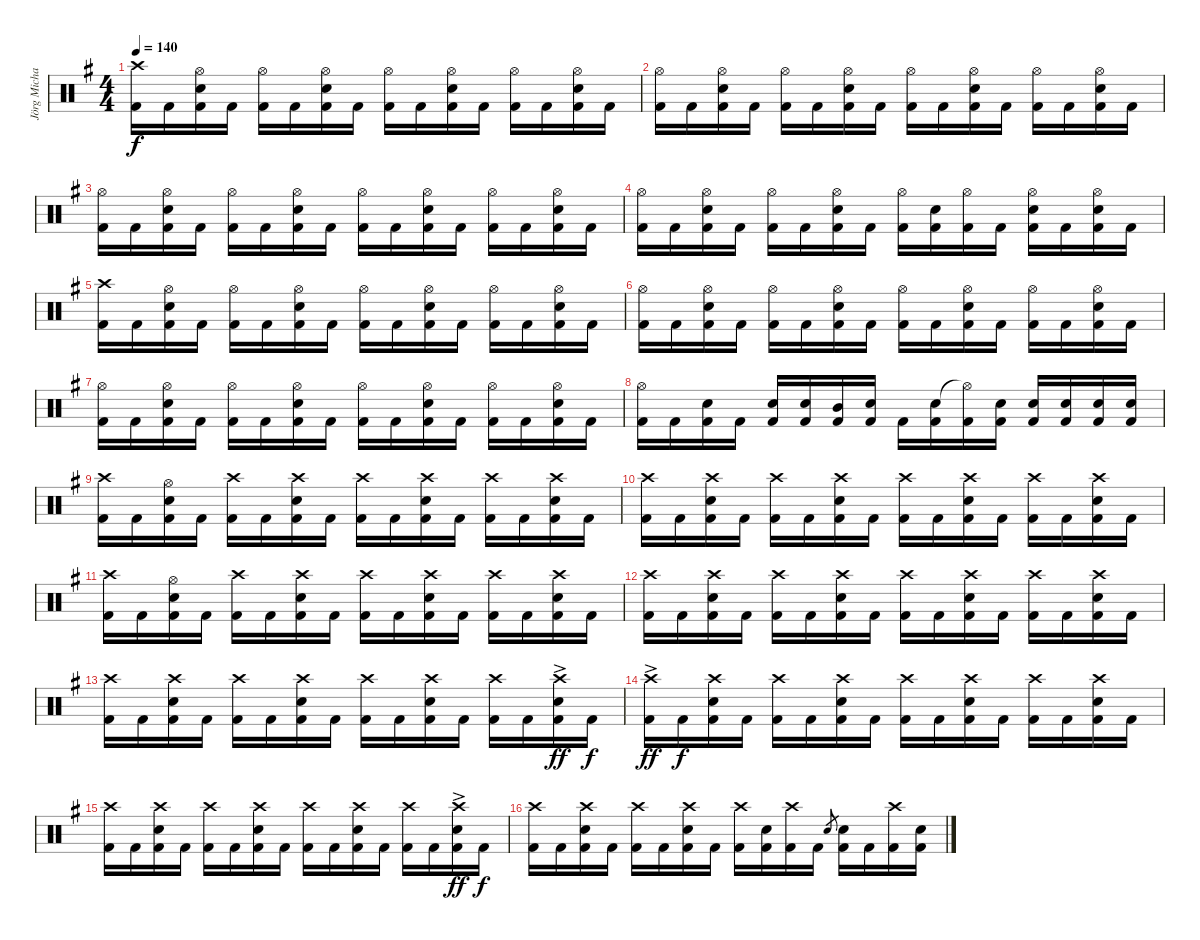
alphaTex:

\track ("Jörg Michael" "Jörg Micha") {instrument percussion}
\staff {score}
\articulation defaults
\ts (4 4)
\tempo 140
\clef neutral
\ks g
("Crash high (hit)" "Kick (hit) 2").16{dy f} "Kick (hit) 2".16 ("Electric Snare (hit)" "Kick (hit) 2" "Hi-Hat (open)").16 "Kick (hit) 2".16 ("Kick (hit) 2" "Hi-Hat (open)").16 "Kick (hit) 2".16 ("Electric Snare (hit)" "Kick (hit) 2" "Hi-Hat (open)").16 "Kick (hit) 2".16 ("Kick (hit) 2" "Hi-Hat (open)").16 "Kick (hit) 2".16 ("Electric Snare (hit)" "Kick (hit) 2" "Hi-Hat (open)").16 "Kick (hit) 2".16 ("Kick (hit) 2" "Hi-Hat (open)").16 "Kick (hit) 2".16 ("Electric Snare (hit)" "Kick (hit) 2" "Hi-Hat (open)").16 "Kick (hit) 2".16 |
("Hi-Hat (open)" "Kick (hit) 2").16 "Kick (hit) 2".16 ("Electric Snare (hit)" "Kick (hit) 2" "Hi-Hat (open)").16 "Kick (hit) 2".16 ("Kick (hit) 2" "Hi-Hat (open)").16 "Kick (hit) 2".16 ("Electric Snare (hit)" "Kick (hit) 2" "Hi-Hat (open)").16 "Kick (hit) 2".16 ("Kick (hit) 2" "Hi-Hat (open)").16 "Kick (hit) 2".16 ("Electric Snare (hit)" "Kick (hit) 2" "Hi-Hat (open)").16 "Kick (hit) 2".16 ("Kick (hit) 2" "Hi-Hat (open)").16 "Kick (hit) 2".16 ("Electric Snare (hit)" "Kick (hit) 2" "Hi-Hat (open)").16 "Kick (hit) 2".16 |
("Hi-Hat (open)" "Kick (hit) 2").16 "Kick (hit) 2".16 ("Electric Snare (hit)" "Kick (hit) 2" "Hi-Hat (open)").16 "Kick (hit) 2".16 ("Kick (hit) 2" "Hi-Hat (open)").16 "Kick (hit) 2".16 ("Electric Snare (hit)" "Kick (hit) 2" "Hi-Hat (open)").16 "Kick (hit) 2".16 ("Kick (hit) 2" "Hi-Hat (open)").16 "Kick (hit) 2".16 ("Electric Snare (hit)" "Kick (hit) 2" "Hi-Hat (open)").16 "Kick (hit) 2".16 ("Kick (hit) 2" "Hi-Hat (open)").16 "Kick (hit) 2".16 ("Electric Snare (hit)" "Kick (hit) 2" "Hi-Hat (open)").16 "Kick (hit) 2".16 |
("Hi-Hat (open)" "Kick (hit) 2").16 "Kick (hit) 2".16 ("Electric Snare (hit)" "Kick (hit) 2" "Hi-Hat (open)").16 "Kick (hit) 2".16 ("Kick (hit) 2" "Hi-Hat (open)").16 "Kick (hit) 2".16 ("Electric Snare (hit)" "Kick (hit) 2" "Hi-Hat (open)").16 "Kick (hit) 2".16 ("Kick (hit) 2" "Hi-Hat (open)").16 ("Electric Snare (hit)" "Kick (hit) 2").16 ("Hi-Hat (open)" "Kick (hit) 2").16 "Kick (hit) 2".16 ("Hi-Hat (open)" "Electric Snare (hit)" "Kick (hit) 2").16 "Kick (hit) 2".16 ("Hi-Hat (open)" "Electric Snare (hit)" "Kick (hit) 2").16 "Kick (hit) 2".16 |
("Crash high (hit)" "Kick (hit) 2").16 "Kick (hit) 2".16 ("Electric Snare (hit)" "Kick (hit) 2" "Hi-Hat (open)").16 "Kick (hit) 2".16 ("Kick (hit) 2" "Hi-Hat (open)").16 "Kick (hit) 2".16 ("Electric Snare (hit)" "Kick (hit) 2" "Hi-Hat (open)").16 "Kick (hit) 2".16 ("Kick (hit) 2" "Hi-Hat (open)").16 "Kick (hit) 2".16 ("Electric Snare (hit)" "Kick (hit) 2" "Hi-Hat (open)").16 "Kick (hit) 2".16 ("Kick (hit) 2" "Hi-Hat (open)").16 "Kick (hit) 2".16 ("Electric Snare (hit)" "Kick (hit) 2" "Hi-Hat (open)").16 "Kick (hit) 2".16 |
("Hi-Hat (open)" "Kick (hit) 2").16 "Kick (hit) 2".16 ("Electric Snare (hit)" "Kick (hit) 2" "Hi-Hat (open)").16 "Kick (hit) 2".16 ("Kick (hit) 2" "Hi-Hat (open)").16 "Kick (hit) 2".16 ("Electric Snare (hit)" "Kick (hit) 2" "Hi-Hat (open)").16 "Kick (hit) 2".16 ("Kick (hit) 2" "Hi-Hat (open)").16 "Kick (hit) 2".16 ("Electric Snare (hit)" "Kick (hit) 2" "Hi-Hat (open)").16 "Kick (hit) 2".16 ("Kick (hit) 2" "Hi-Hat (open)").16 "Kick (hit) 2".16 ("Electric Snare (hit)" "Kick (hit) 2" "Hi-Hat (open)").16 "Kick (hit) 2".16 |
("Hi-Hat (open)" "Kick (hit) 2").16 "Kick (hit) 2".16 ("Electric Snare (hit)" "Kick (hit) 2" "Hi-Hat (open)").16 "Kick (hit) 2".16 ("Kick (hit) 2" "Hi-Hat (open)").16 "Kick (hit) 2".16 ("Electric Snare (hit)" "Kick (hit) 2" "Hi-Hat (open)").16 "Kick (hit) 2".16 ("Kick (hit) 2" "Hi-Hat (open)").16 "Kick (hit) 2".16 ("Electric Snare (hit)" "Kick (hit) 2" "Hi-Hat (open)").16 "Kick (hit) 2".16 ("Kick (hit) 2" "Hi-Hat (open)").16 "Kick (hit) 2".16 ("Electric Snare (hit)" "Kick (hit) 2" "Hi-Hat (open)").16 "Kick (hit) 2".16 |
("Hi-Hat (open)" "Kick (hit) 2").16 "Kick (hit) 2".16 ("Electric Snare (hit)" "Kick (hit) 2").16 "Kick (hit) 2".16 ("Kick (hit) 2" "Electric Snare (hit)").16 ("Kick (hit) 2" "Electric Snare (hit)").16 ("Kick (hit) 2" "Mid Tom (hit)").16 ("Kick (hit) 2" "Electric Snare (hit)").16 "Kick (hit) 2".16 ("Kick (hit) 2" "Electric Snare (hit)").16 ("Kick (hit) 2" "Hi-Hat (open)"{t}).16 ("Kick (hit) 2" "Electric Snare (hit)").16 ("Kick (hit) 2" "Electric Snare (hit)").16 ("Kick (hit) 2" "Electric Snare (hit)").16 ("Kick (hit) 2" "Electric Snare (hit)").16 ("Kick (hit) 2" "Electric Snare (hit)").16 |
("Crash high (hit)" "Kick (hit) 2").16 "Kick (hit) 2".16 ("Electric Snare (hit)" "Kick (hit) 2" "Hi-Hat (open)").16 "Kick (hit) 2".16 ("Kick (hit) 2" "Crash high (hit)").16 "Kick (hit) 2".16 ("Electric Snare (hit)" "Kick (hit) 2" "Crash high (hit)").16 "Kick (hit) 2".16 ("Kick (hit) 2" "Crash high (hit)").16 "Kick (hit) 2".16 ("Electric Snare (hit)" "Kick (hit) 2" "Crash high (hit)").16 "Kick (hit) 2".16 ("Kick (hit) 2" "Crash high (hit)").16 "Kick (hit) 2".16 ("Electric Snare (hit)" "Kick (hit) 2" "Crash high (hit)").16 "Kick (hit) 2".16 |
("Crash high (hit)" "Kick (hit) 2").16 "Kick (hit) 2".16 ("Electric Snare (hit)" "Kick (hit) 2" "Crash high (hit)").16 "Kick (hit) 2".16 ("Kick (hit) 2" "Crash high (hit)").16 "Kick (hit) 2".16 ("Electric Snare (hit)" "Kick (hit) 2" "Crash high (hit)").16 "Kick (hit) 2".16 ("Kick (hit) 2" "Crash high (hit)").16 "Kick (hit) 2".16 ("Electric Snare (hit)" "Kick (hit) 2" "Crash high (hit)").16 "Kick (hit) 2".16 ("Kick (hit) 2" "Crash high (hit)").16 "Kick (hit) 2".16 ("Electric Snare (hit)" "Kick (hit) 2" "Crash high (hit)").16 "Kick (hit) 2".16 |
("Crash high (hit)" "Kick (hit) 2").16 "Kick (hit) 2".16 ("Electric Snare (hit)" "Kick (hit) 2" "Hi-Hat (open)").16 "Kick (hit) 2".16 ("Kick (hit) 2" "Crash high (hit)").16 "Kick (hit) 2".16 ("Electric Snare (hit)" "Kick (hit) 2" "Crash high (hit)").16 "Kick (hit) 2".16 ("Kick (hit) 2" "Crash high (hit)").16 "Kick (hit) 2".16 ("Electric Snare (hit)" "Kick (hit) 2" "Crash high (hit)").16 "Kick (hit) 2".16 ("Kick (hit) 2" "Crash high (hit)").16 "Kick (hit) 2".16 ("Electric Snare (hit)" "Kick (hit) 2" "Crash high (hit)").16 "Kick (hit) 2".16 |
("Crash high (hit)" "Kick (hit) 2").16 "Kick (hit) 2".16 ("Electric Snare (hit)" "Kick (hit) 2" "Crash high (hit)").16 "Kick (hit) 2".16 ("Kick (hit) 2" "Crash high (hit)").16 "Kick (hit) 2".16 ("Electric Snare (hit)" "Kick (hit) 2" "Crash high (hit)").16 "Kick (hit) 2".16 ("Kick (hit) 2" "Crash high (hit)").16 "Kick (hit) 2".16 ("Electric Snare (hit)" "Kick (hit) 2" "Crash high (hit)").16 "Kick (hit) 2".16 ("Kick (hit) 2" "Crash high (hit)").16 "Kick (hit) 2".16 ("Electric Snare (hit)" "Kick (hit) 2" "Crash high (hit)").16 "Kick (hit) 2".16 |
("Crash high (hit)" "Kick (hit) 2").16 "Kick (hit) 2".16 ("Electric Snare (hit)" "Kick (hit) 2" "Crash high (hit)").16 "Kick (hit) 2".16 ("Kick (hit) 2" "Crash high (hit)").16 "Kick (hit) 2".16 ("Electric Snare (hit)" "Kick (hit) 2" "Crash high (hit)").16 "Kick (hit) 2".16 ("Kick (hit) 2" "Crash high (hit)").16 "Kick (hit) 2".16 ("Electric Snare (hit)" "Kick (hit) 2" "Crash high (hit)").16 "Kick (hit) 2".16 ("Kick (hit) 2" "Crash high (hit)").16 "Kick (hit) 2".16 ("Electric Snare (hit)" "Kick (hit) 2" "Crash high (hit)"{ac}).16{dy ff} "Kick (hit) 2".16{dy f} |
("Crash high (hit)"{ac} "Kick (hit) 2").16{dy ff} "Kick (hit) 2".16{dy f} ("Electric Snare (hit)" "Kick (hit) 2" "Crash high (hit)").16 "Kick (hit) 2".16 ("Kick (hit) 2" "Crash high (hit)").16 "Kick (hit) 2".16 ("Electric Snare (hit)" "Kick (hit) 2" "Crash high (hit)").16 "Kick (hit) 2".16 ("Kick (hit) 2" "Crash high (hit)").16 "Kick (hit) 2".16 ("Electric Snare (hit)" "Kick (hit) 2" "Crash high (hit)").16 "Kick (hit) 2".16 ("Kick (hit) 2" "Crash high (hit)").16 "Kick (hit) 2".16 ("Electric Snare (hit)" "Kick (hit) 2" "Crash high (hit)").16 "Kick (hit) 2".16 |
("Crash high (hit)" "Kick (hit) 2").16 "Kick (hit) 2".16 ("Electric Snare (hit)" "Kick (hit) 2" "Crash high (hit)").16 "Kick (hit) 2".16 ("Kick (hit) 2" "Crash high (hit)").16 "Kick (hit) 2".16 ("Electric Snare (hit)" "Kick (hit) 2" "Crash high (hit)").16 "Kick (hit) 2".16 ("Kick (hit) 2" "Crash high (hit)").16 "Kick (hit) 2".16 ("Electric Snare (hit)" "Kick (hit) 2" "Crash high (hit)").16 "Kick (hit) 2".16 ("Kick (hit) 2" "Crash high (hit)").16 "Kick (hit) 2".16 ("Electric Snare (hit)" "Kick (hit) 2" "Crash high (hit)"{ac}).16{dy ff} "Kick (hit) 2".16{dy f} |
("Crash high (hit)" "Kick (hit) 2").16 "Kick (hit) 2".16 ("Electric Snare (hit)" "Kick (hit) 2" "Crash high (hit)").16 "Kick (hit) 2".16 ("Kick (hit) 2" "Crash high (hit)").16 "Kick (hit) 2".16 ("Electric Snare (hit)" "Kick (hit) 2" "Crash high (hit)").16 "Kick (hit) 2".16 ("Kick (hit) 2" "Crash high (hit)").16 ("Kick (hit) 2" "Electric Snare (hit)").16 ("Kick (hit) 2" "Crash high (hit)").16 "Kick (hit) 2".16 "Electric Snare (hit)".8{gr} ("Kick (hit) 2" "Electric Snare (hit)").16 "Kick (hit) 2".16 ("Crash high (hit)" "Kick (hit) 2").16 ("Electric Snare (hit)" "Kick (hit) 2").16
